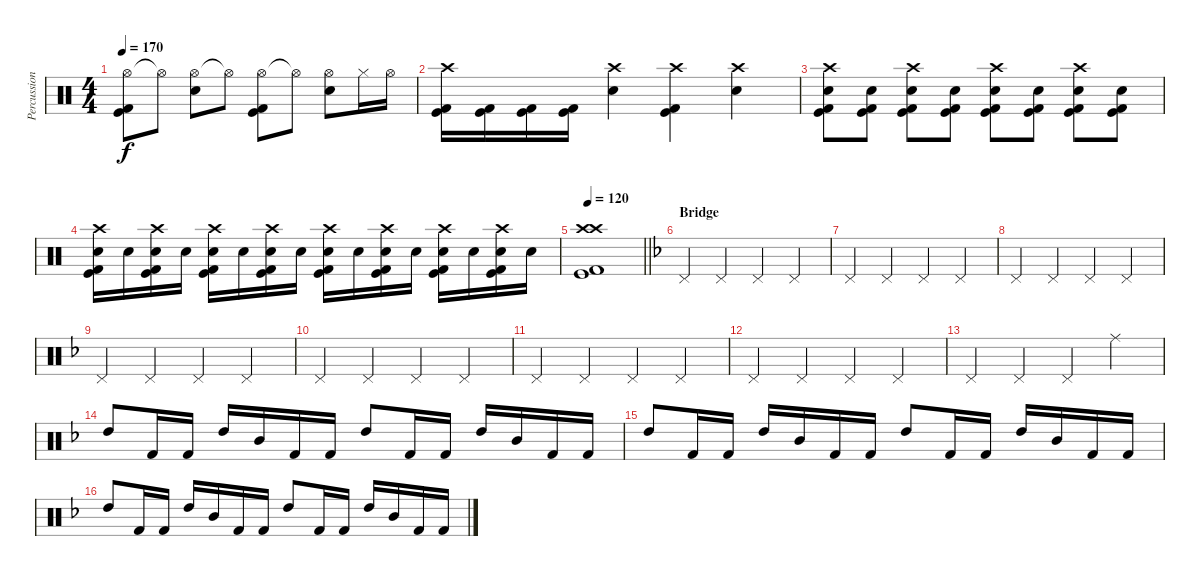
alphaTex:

\track ("Percussion" "Percussion") {instrument percussion}
\staff {score}
\articulation defaults
\ts (4 4)
\tempo 170
\clef neutral
\ks c
("Hi-Hat (open)" "Kick (hit) 2" "Kick (hit)").8{dy f} "Hi-Hat (open)"{t}.8 ("Hi-Hat (open)" "Electric Snare (hit)").8 "Hi-Hat (open)"{t}.8 ("Hi-Hat (open)" "Kick (hit) 2" "Kick (hit)").8 "Hi-Hat (open)"{t}.8 ("Hi-Hat (open)" "Electric Snare (hit)").8 "Hi-Hat (closed)".16 "Hi-Hat (open)".16 |
("Crash high (hit)" "Kick (hit) 2" "Kick (hit)").16 ("Kick (hit) 2" "Kick (hit)").16 ("Kick (hit) 2" "Kick (hit)").16 ("Kick (hit) 2" "Kick (hit)").16 ("Crash high (hit)" "Electric Snare (hit)").4 ("Crash high (hit)" "Kick (hit) 2" "Kick (hit)").4 ("Crash high (hit)" "Electric Snare (hit)").4 |
("Crash high (hit)" "Electric Snare (hit)" "Kick (hit) 2" "Kick (hit)").8 ("Electric Snare (hit)" "Kick (hit) 2" "Kick (hit)").8 ("Crash high (hit)" "Electric Snare (hit)" "Kick (hit) 2" "Kick (hit)").8 ("Electric Snare (hit)" "Kick (hit) 2" "Kick (hit)").8 ("Crash high (hit)" "Electric Snare (hit)" "Kick (hit) 2" "Kick (hit)").8 ("Electric Snare (hit)" "Kick (hit) 2" "Kick (hit)").8 ("Crash high (hit)" "Electric Snare (hit)" "Kick (hit) 2" "Kick (hit)").8 ("Electric Snare (hit)" "Kick (hit) 2" "Kick (hit)").8 |
("Crash high (hit)" "Electric Snare (hit)" "Kick (hit) 2" "Kick (hit)").16 "Electric Snare (hit)".16 ("Crash high (hit)" "Electric Snare (hit)" "Kick (hit) 2" "Kick (hit)").16 "Electric Snare (hit)".16 ("Crash high (hit)" "Electric Snare (hit)" "Kick (hit) 2" "Kick (hit)").16 "Electric Snare (hit)".16 ("Crash high (hit)" "Electric Snare (hit)" "Kick (hit) 2" "Kick (hit)").16 "Electric Snare (hit)".16 ("Crash high (hit)" "Electric Snare (hit)" "Kick (hit) 2" "Kick (hit)").16 "Electric Snare (hit)".16 ("Crash high (hit)" "Electric Snare (hit)" "Kick (hit) 2" "Kick (hit)").16 "Electric Snare (hit)".16 ("Crash high (hit)" "Electric Snare (hit)" "Kick (hit) 2" "Kick (hit)").16 "Electric Snare (hit)".16 ("Crash high (hit)" "Electric Snare (hit)" "Kick (hit) 2" "Kick (hit)").16 "Electric Snare (hit)".16 |
\tempo 120
\barLineRight lightlight
("Crash high (hit)" "Crash high (hit)" "Kick (hit) 2" "Kick (hit)").1 |
\section ("" "Bridge")
\ks dminor "Pedal Hi-Hat (hit)".4 "Pedal Hi-Hat (hit)".4 "Pedal Hi-Hat (hit)".4 "Pedal Hi-Hat (hit)".4
|
"Pedal Hi-Hat (hit)".4 "Pedal Hi-Hat (hit)".4 "Pedal Hi-Hat (hit)".4 "Pedal Hi-Hat (hit)".4 |
"Pedal Hi-Hat (hit)".4 "Pedal Hi-Hat (hit)".4 "Pedal Hi-Hat (hit)".4 "Pedal Hi-Hat (hit)".4 |
"Pedal Hi-Hat (hit)".4 "Pedal Hi-Hat (hit)".4 "Pedal Hi-Hat (hit)".4 "Pedal Hi-Hat (hit)".4 |
"Pedal Hi-Hat (hit)".4 "Pedal Hi-Hat (hit)".4 "Pedal Hi-Hat (hit)".4 "Pedal Hi-Hat (hit)".4 |
"Pedal Hi-Hat (hit)".4 "Pedal Hi-Hat (hit)".4 "Pedal Hi-Hat (hit)".4 "Pedal Hi-Hat (hit)".4 |
"Pedal Hi-Hat (hit)".4 "Pedal Hi-Hat (hit)".4 "Pedal Hi-Hat (hit)".4 "Pedal Hi-Hat (hit)".4 |
"Pedal Hi-Hat (hit)".4 "Pedal Hi-Hat (hit)".4 "Pedal Hi-Hat (hit)".4 "Ride (middle)".4 |
"High Tom (hit)".8 "Kick (hit) 2".16 "Kick (hit) 2".16 "High Tom (hit)".16 "Mid Tom (hit)".16 "Kick (hit) 2".16 "Kick (hit) 2".16 "High Tom (hit)".8 "Kick (hit) 2".16 "Kick (hit) 2".16 "High Tom (hit)".16 "Mid Tom (hit)".16 "Kick (hit) 2".16 "Kick (hit) 2".16 |
"High Tom (hit)".8 "Kick (hit) 2".16 "Kick (hit) 2".16 "High Tom (hit)".16 "Mid Tom (hit)".16 "Kick (hit) 2".16 "Kick (hit) 2".16 "High Tom (hit)".8 "Kick (hit) 2".16 "Kick (hit) 2".16 "High Tom (hit)".16 "Mid Tom (hit)".16 "Kick (hit) 2".16 "Kick (hit) 2".16 |
"High Tom (hit)".8 "Kick (hit) 2".16 "Kick (hit) 2".16 "High Tom (hit)".16 "Mid Tom (hit)".16 "Kick (hit) 2".16 "Kick (hit) 2".16 "High Tom (hit)".8 "Kick (hit) 2".16 "Kick (hit) 2".16 "High Tom (hit)".16 "Mid Tom (hit)".16 "Kick (hit) 2".16 "Kick (hit) 2".16
